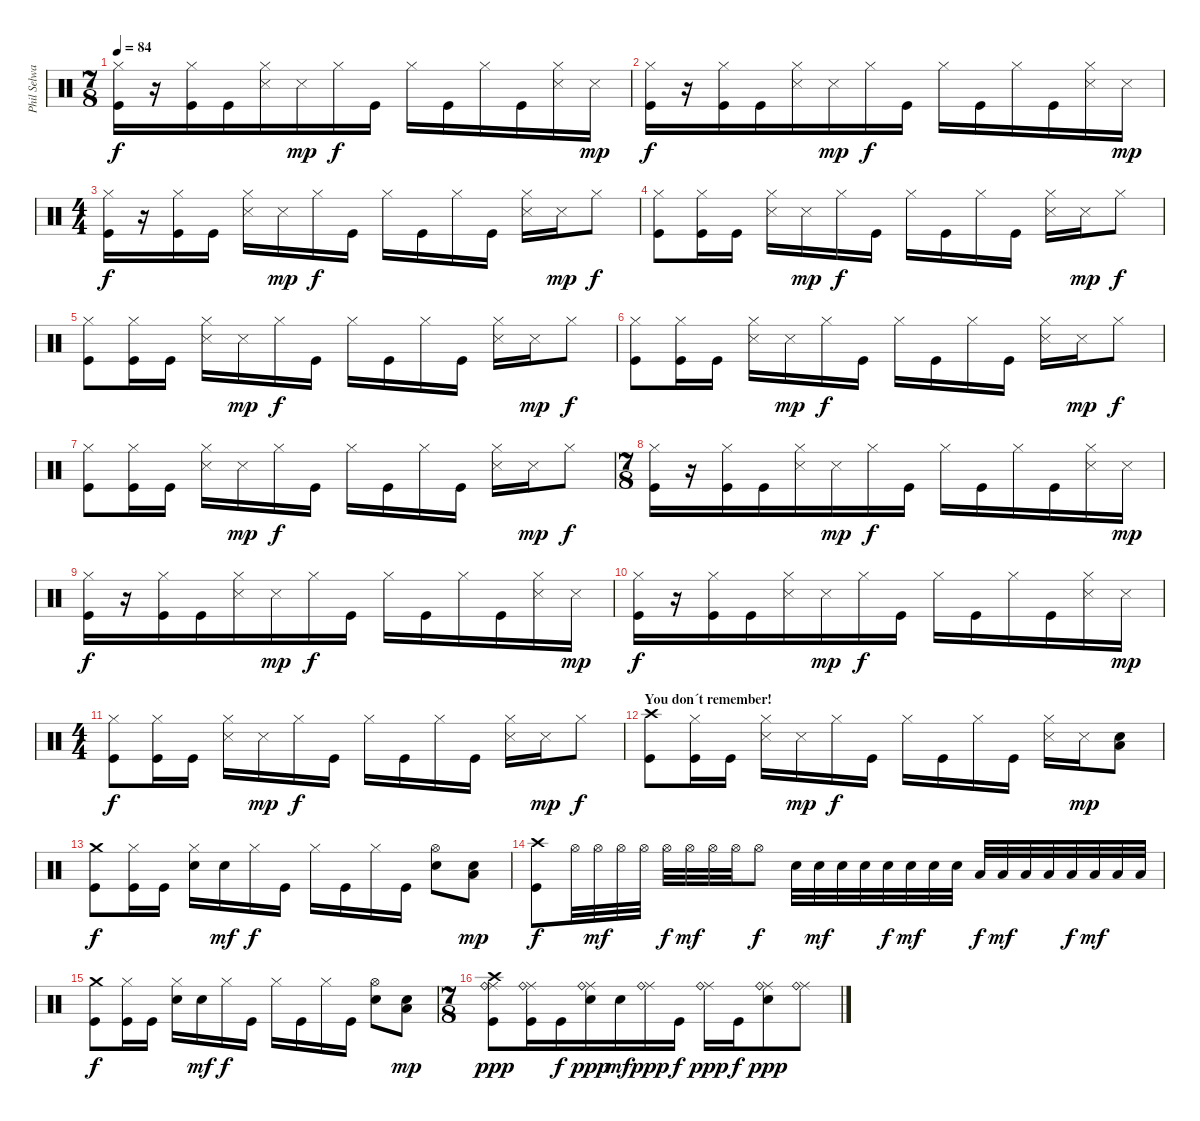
\track ("Phil Selway" "Phil Selwa") {instrument percussion}
\staff {score}
\articulation defaults
\ts (7 8)
\tempo 84
\clef neutral
\ks c
("Hi-Hat (closed)" "Kick (hit)").16{dy f} r.16 ("Hi-Hat (closed)" "Kick (hit)").16 "Kick (hit)".16 ("Hi-Hat (closed)" "Snare (side stick) 3").16 "Snare (side stick) 3".16{dy mp} "Hi-Hat (closed)".16{dy f} "Kick (hit)".16 "Hi-Hat (closed)".16 "Kick (hit)".16 "Hi-Hat (closed)".16 "Kick (hit)".16 ("Hi-Hat (closed)" "Snare (side stick) 3").16 "Snare (side stick) 3".16{dy mp} |
("Hi-Hat (closed)" "Kick (hit)").16{dy f} r.16 ("Hi-Hat (closed)" "Kick (hit)").16 "Kick (hit)".16 ("Hi-Hat (closed)" "Snare (side stick) 3").16 "Snare (side stick) 3".16{dy mp} "Hi-Hat (closed)".16{dy f} "Kick (hit)".16 "Hi-Hat (closed)".16 "Kick (hit)".16 "Hi-Hat (closed)".16 "Kick (hit)".16 ("Hi-Hat (closed)" "Snare (side stick) 3").16 "Snare (side stick) 3".16{dy mp} |
\ts (4 4)
("Hi-Hat (closed)" "Kick (hit)").16{dy f} r.16 ("Hi-Hat (closed)" "Kick (hit)").16 "Kick (hit)".16 ("Hi-Hat (closed)" "Snare (side stick) 3").16 "Snare (side stick) 3".16{dy mp} "Hi-Hat (closed)".16{dy f} "Kick (hit)".16 "Hi-Hat (closed)".16 "Kick (hit)".16 "Hi-Hat (closed)".16 "Kick (hit)".16 ("Hi-Hat (closed)" "Snare (side stick) 3").16 "Snare (side stick) 3".16{dy mp} "Hi-Hat (closed)".8{dy f} |
("Hi-Hat (closed)" "Kick (hit)").8 ("Hi-Hat (closed)" "Kick (hit)").16 "Kick (hit)".16 ("Hi-Hat (closed)" "Snare (side stick) 3").16 "Snare (side stick) 3".16{dy mp} "Hi-Hat (closed)".16{dy f} "Kick (hit)".16 "Hi-Hat (closed)".16 "Kick (hit)".16 "Hi-Hat (closed)".16 "Kick (hit)".16 ("Hi-Hat (closed)" "Snare (side stick) 3").16 "Snare (side stick) 3".16{dy mp} "Hi-Hat (closed)".8{dy f} |
("Hi-Hat (closed)" "Kick (hit)").8 ("Hi-Hat (closed)" "Kick (hit)").16 "Kick (hit)".16 ("Hi-Hat (closed)" "Snare (side stick) 3").16 "Snare (side stick) 3".16{dy mp} "Hi-Hat (closed)".16{dy f} "Kick (hit)".16 "Hi-Hat (closed)".16 "Kick (hit)".16 "Hi-Hat (closed)".16 "Kick (hit)".16 ("Hi-Hat (closed)" "Snare (side stick) 3").16 "Snare (side stick) 3".16{dy mp} "Hi-Hat (closed)".8{dy f} |
("Hi-Hat (closed)" "Kick (hit)").8 ("Hi-Hat (closed)" "Kick (hit)").16 "Kick (hit)".16 ("Hi-Hat (closed)" "Snare (side stick) 3").16 "Snare (side stick) 3".16{dy mp} "Hi-Hat (closed)".16{dy f} "Kick (hit)".16 "Hi-Hat (closed)".16 "Kick (hit)".16 "Hi-Hat (closed)".16 "Kick (hit)".16 ("Hi-Hat (closed)" "Snare (side stick) 3").16 "Snare (side stick) 3".16{dy mp} "Hi-Hat (closed)".8{dy f} |
("Hi-Hat (closed)" "Kick (hit)").8 ("Hi-Hat (closed)" "Kick (hit)").16 "Kick (hit)".16 ("Hi-Hat (closed)" "Snare (side stick) 3").16 "Snare (side stick) 3".16{dy mp} "Hi-Hat (closed)".16{dy f} "Kick (hit)".16 "Hi-Hat (closed)".16 "Kick (hit)".16 "Hi-Hat (closed)".16 "Kick (hit)".16 ("Hi-Hat (closed)" "Snare (side stick) 3").16 "Snare (side stick) 3".16{dy mp} "Hi-Hat (closed)".8{dy f} |
\ts (7 8)
("Hi-Hat (closed)" "Kick (hit)").16 r.16 ("Hi-Hat (closed)" "Kick (hit)").16 "Kick (hit)".16 ("Hi-Hat (closed)" "Snare (side stick) 3").16 "Snare (side stick) 3".16{dy mp} "Hi-Hat (closed)".16{dy f} "Kick (hit)".16 "Hi-Hat (closed)".16 "Kick (hit)".16 "Hi-Hat (closed)".16 "Kick (hit)".16 ("Hi-Hat (closed)" "Snare (side stick) 3").16 "Snare (side stick) 3".16{dy mp} |
("Hi-Hat (closed)" "Kick (hit)").16{dy f} r.16 ("Hi-Hat (closed)" "Kick (hit)").16 "Kick (hit)".16 ("Hi-Hat (closed)" "Snare (side stick) 3").16 "Snare (side stick) 3".16{dy mp} "Hi-Hat (closed)".16{dy f} "Kick (hit)".16 "Hi-Hat (closed)".16 "Kick (hit)".16 "Hi-Hat (closed)".16 "Kick (hit)".16 ("Hi-Hat (closed)" "Snare (side stick) 3").16 "Snare (side stick) 3".16{dy mp} |
("Hi-Hat (closed)" "Kick (hit)").16{dy f} r.16 ("Hi-Hat (closed)" "Kick (hit)").16 "Kick (hit)".16 ("Hi-Hat (closed)" "Snare (side stick) 3").16 "Snare (side stick) 3".16{dy mp} "Hi-Hat (closed)".16{dy f} "Kick (hit)".16 "Hi-Hat (closed)".16 "Kick (hit)".16 "Hi-Hat (closed)".16 "Kick (hit)".16 ("Hi-Hat (closed)" "Snare (side stick) 3").16 "Snare (side stick) 3".16{dy mp} |
\ts (4 4)
("Hi-Hat (closed)" "Kick (hit)").8{dy f} ("Hi-Hat (closed)" "Kick (hit)").16 "Kick (hit)".16 ("Hi-Hat (closed)" "Snare (side stick) 3").16 "Snare (side stick) 3".16{dy mp} "Hi-Hat (closed)".16{dy f} "Kick (hit)".16 "Hi-Hat (closed)".16 "Kick (hit)".16 "Hi-Hat (closed)".16 "Kick (hit)".16 ("Hi-Hat (closed)" "Snare (side stick) 3").16 "Snare (side stick) 3".16{dy mp} "Hi-Hat (closed)".8{dy f} |
\section ("" "You don´t remember!")
("Crash high (hit)" "Kick (hit)").8 ("Hi-Hat (closed)" "Kick (hit)").16 "Kick (hit)".16 ("Hi-Hat (closed)" "Snare (side stick) 3").16 "Snare (side stick) 3".16{dy mp} "Hi-Hat (closed)".16{dy f} "Kick (hit)".16 "Hi-Hat (closed)".16 "Kick (hit)".16 "Hi-Hat (closed)".16 "Kick (hit)".16 ("Hi-Hat (closed)" "Snare (side stick) 3").16 "Snare (side stick) 3".16{dy mp} ("Snare (hit) 2" "Low Floor Tom (hit)").8{volume 16} |
("Crash medium (hit)" "Kick (hit)").8{dy f} ("Hi-Hat (closed)" "Kick (hit)").16 "Kick (hit)".16 ("Hi-Hat (closed)" "Snare (hit) 2").16 "Snare (hit) 2".16{dy mf} "Hi-Hat (closed)".16{dy f} "Kick (hit)".16 "Hi-Hat (closed)".16 "Kick (hit)".16 "Hi-Hat (closed)".16 "Kick (hit)".16 ("Hi-Hat (open)" "Snare (hit) 2").8 ("Snare (hit) 2" "Low Floor Tom (hit)").8{dy mp} |
("Crash high (hit)" "Kick (hit)").8{dy f} "Hi-Hat (open)".32 "Hi-Hat (open)".32{dy mf} "Hi-Hat (open)".32 "Hi-Hat (open)".32 "Hi-Hat (open)".32{dy f} "Hi-Hat (open)".32{dy mf} "Hi-Hat (open)".32 "Hi-Hat (open)".32 "Hi-Hat (open)".8{dy f} "Snare (hit) 2".32 "Snare (hit) 2".32{dy mf} "Snare (hit) 2".32 "Snare (hit) 2".32 "Snare (hit) 2".32{dy f} "Snare (hit) 2".32{dy mf} "Snare (hit) 2".32 "Snare (hit) 2".32 "Low Tom (hit)".32{dy f} "Low Tom (hit)".32{dy mf} "Low Tom (hit)".32 "Low Tom (hit)".32 "Low Tom (hit)".32{dy f} "Low Tom (hit)".32{dy mf} "Low Tom (hit)".32 "Low Tom (hit)".32 |
("Crash medium (hit)" "Kick (hit)").8{dy f} ("Hi-Hat (closed)" "Kick (hit)").16 "Kick (hit)".16 ("Hi-Hat (closed)" "Snare (hit) 2").16 "Snare (hit) 2".16{dy mf} "Hi-Hat (closed)".16{dy f} "Kick (hit)".16 "Hi-Hat (closed)".16 "Kick (hit)".16 "Hi-Hat (closed)".16 "Kick (hit)".16 ("Hi-Hat (open)" "Snare (hit) 2").8 ("Snare (hit) 2" "Low Floor Tom (hit)").8{dy mp} |
\ts (7 8)
("Ride (middle)" "Ride (bell)" "Crash high (hit)" "Kick (hit)").8{dy ppp} ("Ride (middle)" "Ride (bell)" "Kick (hit)").16 "Kick (hit)".16{dy f} ("Ride (middle)" "Ride (bell)" "Snare (hit) 2").16{dy ppp} "Snare (hit) 2".16{dy mf} ("Ride (middle)" "Ride (bell)").16{dy ppp} "Kick (hit)".16{dy f} ("Ride (middle)" "Ride (bell)").16{dy ppp} "Kick (hit)".16{dy f} ("Ride (middle)" "Ride (bell)" "Snare (hit) 2").8{dy ppp} ("Ride (middle)" "Ride (bell)").8
